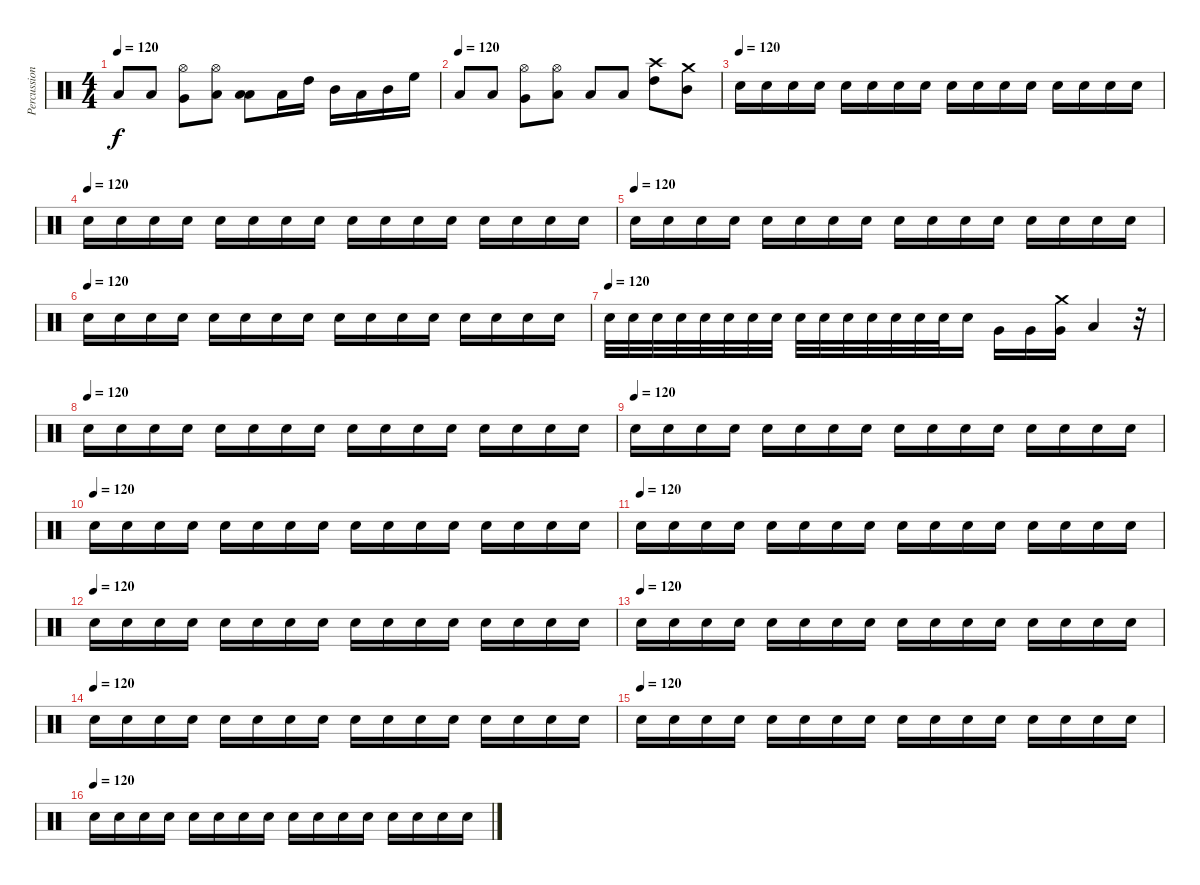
\track ("Percussion" "Percussion") {instrument percussion}
\staff {score}
\articulation defaults
\ts (4 4)
\tempo 120
\clef neutral
\ks c "Low Floor Tom (hit)".8{dy f} "Low Floor Tom (hit)".8
("Very Low Tom (hit)" "Hi-Hat (open)").8 ("Low Tom (hit)" "Hi-Hat (open)").8 ("Low Floor Tom (hit)" "Low Tom (hit)").8 "Low Floor Tom (hit)".16 "High Tom (hit)".16 "Mid Tom (hit)".16 "Low Tom (hit)".16 "Mid Tom (hit)".16 "High Floor Tom (hit)".16 |
\tempo (120)
"Low Floor Tom (hit)".8 "Low Floor Tom (hit)".8 ("Very Low Tom (hit)" "Hi-Hat (open)").8 ("Low Tom (hit)" "Hi-Hat (open)").8 "Low Floor Tom (hit)".8 "Low Floor Tom (hit)".8 ("High Tom (hit)" "Crash high (hit)").8 ("Mid Tom (hit)" "Crash medium (hit)").8 |
\tempo (120)
"Snare (hit) 2".16 "Electric Snare (hit)".16 "Snare (hit) 2".16 "Electric Snare (hit)".16 "Snare (hit) 2".16 "Electric Snare (hit)".16 "Snare (hit) 2".16 "Snare (hit) 2".16 "Electric Snare (hit)".16 "Snare (hit) 2".16 "Electric Snare (hit)".16 "Snare (hit) 2".16 "Electric Snare (hit)".16 "Snare (hit) 2".16 "Electric Snare (hit)".16 "Snare (hit) 2".16 |
\tempo (120)
"Snare (hit) 2".16 "Electric Snare (hit)".16 "Snare (hit) 2".16 "Electric Snare (hit)".16 "Snare (hit) 2".16 "Electric Snare (hit)".16 "Snare (hit) 2".16 "Snare (hit) 2".16 "Electric Snare (hit)".16 "Snare (hit) 2".16 "Electric Snare (hit)".16 "Snare (hit) 2".16 "Electric Snare (hit)".16 "Snare (hit) 2".16 "Electric Snare (hit)".16 "Snare (hit) 2".16 |
\tempo (120)
"Snare (hit) 2".16 "Electric Snare (hit)".16 "Snare (hit) 2".16 "Electric Snare (hit)".16 "Snare (hit) 2".16 "Electric Snare (hit)".16 "Snare (hit) 2".16 "Snare (hit) 2".16 "Electric Snare (hit)".16 "Snare (hit) 2".16 "Electric Snare (hit)".16 "Snare (hit) 2".16 "Electric Snare (hit)".16 "Snare (hit) 2".16 "Electric Snare (hit)".16 "Snare (hit) 2".16 |
\tempo (120)
"Snare (hit) 2".16 "Electric Snare (hit)".16 "Snare (hit) 2".16 "Electric Snare (hit)".16 "Snare (hit) 2".16 "Electric Snare (hit)".16 "Snare (hit) 2".16 "Snare (hit) 2".16 "Electric Snare (hit)".16 "Snare (hit) 2".16 "Electric Snare (hit)".16 "Snare (hit) 2".16 "Electric Snare (hit)".16 "Snare (hit) 2".16 "Electric Snare (hit)".16 "Snare (hit) 2".16 |
\tempo (120)
"Snare (hit) 2".32 "Snare (hit) 2".32 "Snare (hit) 2".32 "Snare (hit) 2".32 "Snare (hit) 2".32 "Snare (hit) 2".32 "Snare (hit) 2".32 "Snare (hit) 2".32 "Snare (hit) 2".32 "Snare (hit) 2".32 "Snare (hit) 2".32 "Snare (hit) 2".32 "Snare (hit) 2".32 "Snare (hit) 2".32 "Electric Snare (hit)".32 "Snare (hit) 2".16 "Very Low Tom (hit)".16 "Very Low Tom (hit)".16 ("Very Low Tom (hit)" "Crash medium (hit)").16 "Low Tom (hit)".4 r.32 |
\tempo (120)
"Snare (hit) 2".16 "Electric Snare (hit)".16 "Snare (hit) 2".16 "Electric Snare (hit)".16 "Snare (hit) 2".16 "Electric Snare (hit)".16 "Snare (hit) 2".16 "Snare (hit) 2".16 "Electric Snare (hit)".16 "Snare (hit) 2".16 "Electric Snare (hit)".16 "Snare (hit) 2".16 "Electric Snare (hit)".16 "Snare (hit) 2".16 "Electric Snare (hit)".16 "Snare (hit) 2".16 |
\tempo (120)
"Snare (hit) 2".16 "Electric Snare (hit)".16 "Snare (hit) 2".16 "Electric Snare (hit)".16 "Snare (hit) 2".16 "Electric Snare (hit)".16 "Snare (hit) 2".16 "Snare (hit) 2".16 "Electric Snare (hit)".16 "Snare (hit) 2".16 "Electric Snare (hit)".16 "Snare (hit) 2".16 "Electric Snare (hit)".16 "Snare (hit) 2".16 "Electric Snare (hit)".16 "Snare (hit) 2".16 |
\tempo (120)
"Snare (hit) 2".16 "Electric Snare (hit)".16 "Snare (hit) 2".16 "Electric Snare (hit)".16 "Snare (hit) 2".16 "Electric Snare (hit)".16 "Snare (hit) 2".16 "Snare (hit) 2".16 "Electric Snare (hit)".16 "Snare (hit) 2".16 "Electric Snare (hit)".16 "Snare (hit) 2".16 "Electric Snare (hit)".16 "Snare (hit) 2".16 "Electric Snare (hit)".16 "Snare (hit) 2".16 |
\tempo (120)
"Snare (hit) 2".16 "Electric Snare (hit)".16 "Snare (hit) 2".16 "Electric Snare (hit)".16 "Snare (hit) 2".16 "Electric Snare (hit)".16 "Snare (hit) 2".16 "Snare (hit) 2".16 "Electric Snare (hit)".16 "Snare (hit) 2".16 "Electric Snare (hit)".16 "Snare (hit) 2".16 "Electric Snare (hit)".16 "Snare (hit) 2".16 "Electric Snare (hit)".16 "Snare (hit) 2".16 |
\tempo (120)
"Snare (hit) 2".16 "Electric Snare (hit)".16 "Snare (hit) 2".16 "Electric Snare (hit)".16 "Snare (hit) 2".16 "Electric Snare (hit)".16 "Snare (hit) 2".16 "Snare (hit) 2".16 "Electric Snare (hit)".16 "Snare (hit) 2".16 "Electric Snare (hit)".16 "Snare (hit) 2".16 "Electric Snare (hit)".16 "Snare (hit) 2".16 "Electric Snare (hit)".16 "Snare (hit) 2".16 |
\tempo (120)
"Snare (hit) 2".16 "Electric Snare (hit)".16 "Snare (hit) 2".16 "Electric Snare (hit)".16 "Snare (hit) 2".16 "Electric Snare (hit)".16 "Snare (hit) 2".16 "Snare (hit) 2".16 "Electric Snare (hit)".16 "Snare (hit) 2".16 "Electric Snare (hit)".16 "Snare (hit) 2".16 "Electric Snare (hit)".16 "Snare (hit) 2".16 "Electric Snare (hit)".16 "Snare (hit) 2".16 |
\tempo (120)
"Snare (hit) 2".16 "Electric Snare (hit)".16 "Snare (hit) 2".16 "Electric Snare (hit)".16 "Snare (hit) 2".16 "Electric Snare (hit)".16 "Snare (hit) 2".16 "Snare (hit) 2".16 "Electric Snare (hit)".16 "Snare (hit) 2".16 "Electric Snare (hit)".16 "Snare (hit) 2".16 "Electric Snare (hit)".16 "Snare (hit) 2".16 "Electric Snare (hit)".16 "Snare (hit) 2".16 |
\tempo (120)
"Snare (hit) 2".16 "Electric Snare (hit)".16 "Snare (hit) 2".16 "Electric Snare (hit)".16 "Snare (hit) 2".16 "Electric Snare (hit)".16 "Snare (hit) 2".16 "Snare (hit) 2".16 "Electric Snare (hit)".16 "Snare (hit) 2".16 "Electric Snare (hit)".16 "Snare (hit) 2".16 "Electric Snare (hit)".16 "Snare (hit) 2".16 "Electric Snare (hit)".16 "Snare (hit) 2".16 |
\tempo (120)
"Snare (hit) 2".16 "Electric Snare (hit)".16 "Snare (hit) 2".16 "Electric Snare (hit)".16 "Snare (hit) 2".16 "Electric Snare (hit)".16 "Snare (hit) 2".16 "Snare (hit) 2".16 "Electric Snare (hit)".16 "Snare (hit) 2".16 "Electric Snare (hit)".16 "Snare (hit) 2".16 "Electric Snare (hit)".16 "Snare (hit) 2".16 "Electric Snare (hit)".16 "Snare (hit) 2".16
